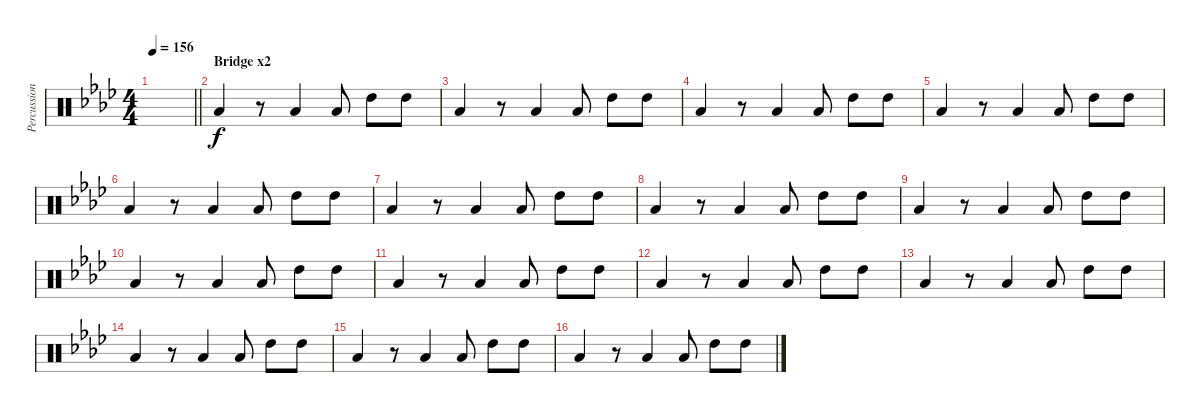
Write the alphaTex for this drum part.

\track ("Percussion " "Percussion") {instrument percussion}
\staff {score}
\articulation defaults
\ts (4 4)
\tempo 156
\clef neutral
\barLineRight lightlight
\ks fminor
|
\section ("" "Bridge x2")
"Low Tom (hit)".4 r.8 "Low Tom (hit)".4 "Low Tom (hit)".8 "High Tom (hit)".8 "High Tom (hit)".8 |
"Low Tom (hit)".4 r.8 "Low Tom (hit)".4 "Low Tom (hit)".8 "High Tom (hit)".8 "High Tom (hit)".8 |
"Low Tom (hit)".4 r.8 "Low Tom (hit)".4 "Low Tom (hit)".8 "High Tom (hit)".8 "High Tom (hit)".8 |
"Low Tom (hit)".4 r.8 "Low Tom (hit)".4 "Low Tom (hit)".8 "High Tom (hit)".8 "High Tom (hit)".8 |
"Low Tom (hit)".4 r.8 "Low Tom (hit)".4 "Low Tom (hit)".8 "High Tom (hit)".8 "High Tom (hit)".8 |
"Low Tom (hit)".4 r.8 "Low Tom (hit)".4 "Low Tom (hit)".8 "High Tom (hit)".8 "High Tom (hit)".8 |
"Low Tom (hit)".4 r.8 "Low Tom (hit)".4 "Low Tom (hit)".8 "High Tom (hit)".8 "High Tom (hit)".8 |
"Low Tom (hit)".4 r.8 "Low Tom (hit)".4 "Low Tom (hit)".8 "High Tom (hit)".8 "High Tom (hit)".8 |
"Low Tom (hit)".4 r.8 "Low Tom (hit)".4 "Low Tom (hit)".8 "High Tom (hit)".8 "High Tom (hit)".8 |
"Low Tom (hit)".4 r.8 "Low Tom (hit)".4 "Low Tom (hit)".8 "High Tom (hit)".8 "High Tom (hit)".8 |
"Low Tom (hit)".4 r.8 "Low Tom (hit)".4 "Low Tom (hit)".8 "High Tom (hit)".8 "High Tom (hit)".8 |
"Low Tom (hit)".4 r.8 "Low Tom (hit)".4 "Low Tom (hit)".8 "High Tom (hit)".8 "High Tom (hit)".8 |
"Low Tom (hit)".4 r.8 "Low Tom (hit)".4 "Low Tom (hit)".8 "High Tom (hit)".8 "High Tom (hit)".8 |
"Low Tom (hit)".4 r.8 "Low Tom (hit)".4 "Low Tom (hit)".8 "High Tom (hit)".8 "High Tom (hit)".8 |
"Low Tom (hit)".4 r.8 "Low Tom (hit)".4 "Low Tom (hit)".8 "High Tom (hit)".8 "High Tom (hit)".8
